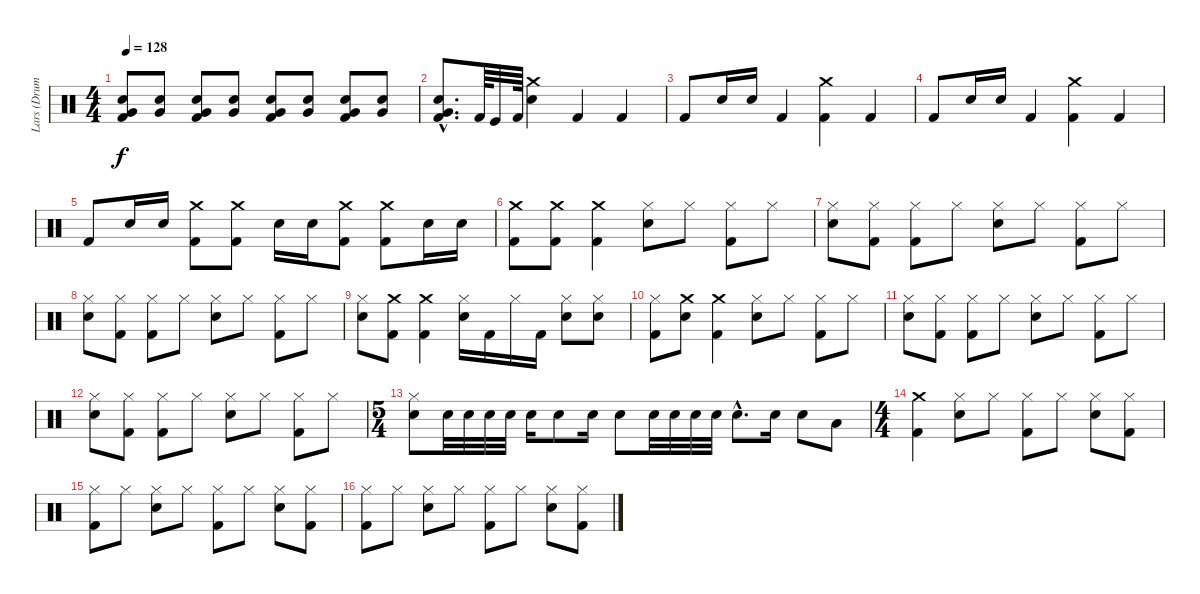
\track ("Lars (Drums)" "Lars (Drum") {instrument percussion}
\staff {score}
\articulation defaults
\ts (4 4)
\tempo 128
\clef neutral
\ks c
("Snare (hit) 2" "Very Low Tom (hit)" "Kick (hit) 2").8{dy f} ("Snare (hit) 2" "Very Low Tom (hit)").8 ("Snare (hit) 2" "Very Low Tom (hit)" "Kick (hit) 2").8 ("Snare (hit) 2" "Very Low Tom (hit)").8 ("Snare (hit) 2" "Very Low Tom (hit)" "Kick (hit) 2").8 ("Snare (hit) 2" "Very Low Tom (hit)").8 ("Snare (hit) 2" "Very Low Tom (hit)" "Kick (hit) 2").8 ("Snare (hit) 2" "Very Low Tom (hit)").8 |
("Kick (hit) 2"{hac} "Snare (hit) 2"{hac} "Very Low Tom (hit)"{hac}).8{d} "Kick (hit) 2".64 "Kick (hit)".32 "Kick (hit) 2".64 ("Crash medium (hit)" "Snare (hit) 2").4 "Kick (hit) 2".4 "Kick (hit) 2".4 |
"Kick (hit) 2".8 "Snare (hit) 2".16 "Snare (hit) 2".16 "Kick (hit) 2".4 ("Crash medium (hit)" "Kick (hit) 2").4 "Kick (hit) 2".4 |
"Kick (hit) 2".8 "Snare (hit) 2".16 "Snare (hit) 2".16 "Kick (hit) 2".4 ("Crash medium (hit)" "Kick (hit) 2").4 "Kick (hit) 2".4 |
"Kick (hit) 2".8 "Snare (hit) 2".16 "Snare (hit) 2".16 ("Kick (hit) 2" "Crash medium (hit)").8 ("Kick (hit) 2" "Crash medium (hit)").8 "Snare (hit) 2".16 "Snare (hit) 2".16 ("Kick (hit) 2" "Crash medium (hit)").8 ("Crash medium (hit)" "Kick (hit) 2").8 "Snare (hit) 2".16 "Snare (hit) 2".16 |
("Kick (hit) 2" "Crash medium (hit)").8 ("Kick (hit) 2" "Crash medium (hit)").8 ("Kick (hit) 2" "Crash medium (hit)").4 ("Hi-Hat (closed)" "Snare (hit) 2").8 "Hi-Hat (closed)".8 ("Kick (hit) 2" "Hi-Hat (closed)").8 "Hi-Hat (closed)".8 |
("Hi-Hat (closed)" "Snare (hit) 2").8 ("Kick (hit) 2" "Hi-Hat (closed)").8 ("Hi-Hat (closed)" "Kick (hit) 2").8 "Hi-Hat (closed)".8 ("Hi-Hat (closed)" "Snare (hit) 2").8 "Hi-Hat (closed)".8 ("Hi-Hat (closed)" "Kick (hit) 2").8 "Hi-Hat (closed)".8 |
("Hi-Hat (closed)" "Snare (hit) 2").8 ("Kick (hit) 2" "Hi-Hat (closed)").8 ("Hi-Hat (closed)" "Kick (hit) 2").8 "Hi-Hat (closed)".8 ("Hi-Hat (closed)" "Snare (hit) 2").8 "Hi-Hat (closed)".8 ("Hi-Hat (closed)" "Kick (hit) 2").8 "Hi-Hat (closed)".8 |
("Hi-Hat (closed)" "Snare (hit) 2").8 ("Kick (hit) 2" "Crash medium (hit)").8 ("Kick (hit) 2" "Crash medium (hit)").4 ("Hi-Hat (closed)" "Snare (hit) 2").16 "Kick (hit) 2".16 "Hi-Hat (closed)".16 "Kick (hit) 2".16 ("Snare (hit) 2" "Hi-Hat (closed)").8 ("Snare (hit) 2" "Hi-Hat (closed)").8 |
("Kick (hit) 2" "Hi-Hat (closed)").8 ("Crash medium (hit)" "Snare (hit) 2").8 ("Kick (hit) 2" "Crash medium (hit)").4 ("Hi-Hat (closed)" "Snare (hit) 2").8 "Hi-Hat (closed)".8 ("Kick (hit) 2" "Hi-Hat (closed)").8 "Hi-Hat (closed)".8 |
("Hi-Hat (closed)" "Snare (hit) 2").8 ("Kick (hit) 2" "Hi-Hat (closed)").8 ("Hi-Hat (closed)" "Kick (hit) 2").8 "Hi-Hat (closed)".8 ("Hi-Hat (closed)" "Snare (hit) 2").8 "Hi-Hat (closed)".8 ("Hi-Hat (closed)" "Kick (hit) 2").8 "Hi-Hat (closed)".8 |
("Hi-Hat (closed)" "Snare (hit) 2").8 ("Kick (hit) 2" "Hi-Hat (closed)").8 ("Hi-Hat (closed)" "Kick (hit) 2").8 "Hi-Hat (closed)".8 ("Hi-Hat (closed)" "Snare (hit) 2").8 "Hi-Hat (closed)".8 ("Hi-Hat (closed)" "Kick (hit) 2").8 "Hi-Hat (closed)".8 |
\ts (5 4)
("Snare (hit) 2" "Hi-Hat (closed)").8 "Snare (hit) 2".32 "Snare (hit) 2".32 "Snare (hit) 2".32 "Snare (hit) 2".32 "Snare (hit) 2".16 "Snare (hit) 2".8 "Snare (hit) 2".16 "Snare (hit) 2".8 "Snare (hit) 2".32 "Snare (hit) 2".32 "Snare (hit) 2".32 "Snare (hit) 2".32 "Snare (hit) 2"{hac}.8{d} "Snare (hit) 2".16 "Snare (hit) 2".8 "Low Tom (hit)".8 |
\ts (4 4)
("Kick (hit) 2" "Crash medium (hit)").4 ("Snare (hit) 2" "Hi-Hat (closed)").8 "Hi-Hat (closed)".8 ("Hi-Hat (closed)" "Kick (hit) 2").8 "Hi-Hat (closed)".8 ("Snare (hit) 2" "Hi-Hat (closed)").8 ("Kick (hit) 2" "Hi-Hat (closed)").8 |
("Hi-Hat (closed)" "Kick (hit) 2").8 "Hi-Hat (closed)".8 ("Snare (hit) 2" "Hi-Hat (closed)").8 "Hi-Hat (closed)".8 ("Hi-Hat (closed)" "Kick (hit) 2").8 "Hi-Hat (closed)".8 ("Snare (hit) 2" "Hi-Hat (closed)").8 ("Kick (hit) 2" "Hi-Hat (closed)").8 |
("Hi-Hat (closed)" "Kick (hit) 2").8 "Hi-Hat (closed)".8 ("Snare (hit) 2" "Hi-Hat (closed)").8 "Hi-Hat (closed)".8 ("Hi-Hat (closed)" "Kick (hit) 2").8 "Hi-Hat (closed)".8 ("Snare (hit) 2" "Hi-Hat (closed)").8 ("Kick (hit) 2" "Hi-Hat (closed)").8
